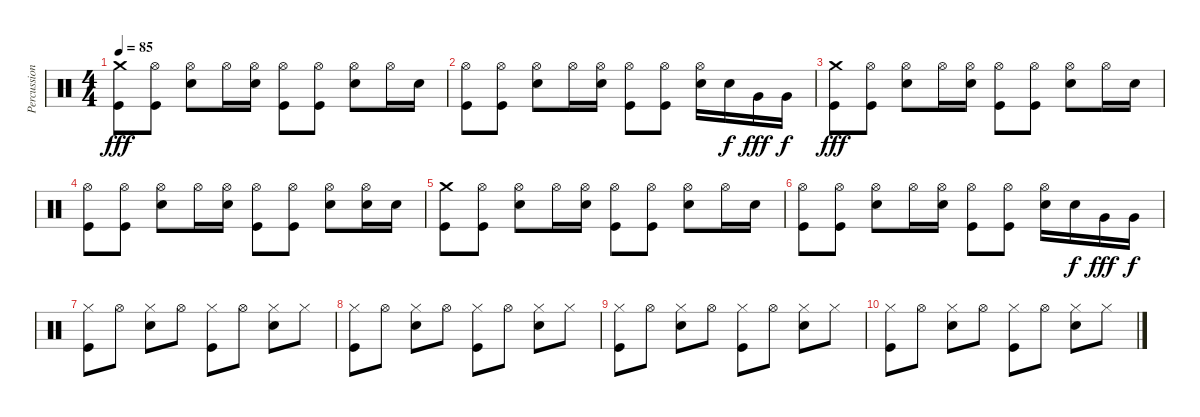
\track ("Percussion" "Percussion") {instrument percussion}
\staff {score}
\articulation defaults
\ts (4 4)
\tempo 85
\clef neutral
\ks c
("Crash medium (hit)" "Kick (hit)").8{dy fff} ("Hi-Hat (open)" "Kick (hit)").8 ("Hi-Hat (open)" "Electric Snare (hit)").8 "Hi-Hat (open)".16 ("Hi-Hat (open)" "Electric Snare (hit)").16 ("Hi-Hat (open)" "Kick (hit)").8 ("Hi-Hat (open)" "Kick (hit)").8 ("Hi-Hat (open)" "Electric Snare (hit)").8 "Hi-Hat (open)".16 "Electric Snare (hit)".16 |
("Hi-Hat (open)" "Kick (hit)").8 ("Hi-Hat (open)" "Kick (hit)").8 ("Hi-Hat (open)" "Electric Snare (hit)").8 "Hi-Hat (open)".16 ("Hi-Hat (open)" "Electric Snare (hit)").16 ("Hi-Hat (open)" "Kick (hit)").8 ("Hi-Hat (open)" "Kick (hit)").8 ("Hi-Hat (open)" "Electric Snare (hit)").16 "Electric Snare (hit)".16{dy f} "Very Low Tom (hit)".16{dy fff} "Very Low Tom (hit)".16{dy f} |
("Crash medium (hit)" "Kick (hit)").8{dy fff} ("Hi-Hat (open)" "Kick (hit)").8 ("Hi-Hat (open)" "Electric Snare (hit)").8 "Hi-Hat (open)".16 ("Hi-Hat (open)" "Electric Snare (hit)").16 ("Hi-Hat (open)" "Kick (hit)").8 ("Hi-Hat (open)" "Kick (hit)").8 ("Hi-Hat (open)" "Electric Snare (hit)").8 "Hi-Hat (open)".16 "Electric Snare (hit)".16 |
("Hi-Hat (open)" "Kick (hit)").8 ("Hi-Hat (open)" "Kick (hit)").8 ("Hi-Hat (open)" "Electric Snare (hit)").8 "Hi-Hat (open)".16 ("Hi-Hat (open)" "Electric Snare (hit)").16 ("Hi-Hat (open)" "Kick (hit)").8 ("Hi-Hat (open)" "Kick (hit)").8 ("Hi-Hat (open)" "Electric Snare (hit)").8 ("Hi-Hat (open)" "Electric Snare (hit)").16 "Electric Snare (hit)".16 |
("Crash medium (hit)" "Kick (hit)").8 ("Hi-Hat (open)" "Kick (hit)").8 ("Hi-Hat (open)" "Electric Snare (hit)").8 "Hi-Hat (open)".16 ("Hi-Hat (open)" "Electric Snare (hit)").16 ("Hi-Hat (open)" "Kick (hit)").8 ("Hi-Hat (open)" "Kick (hit)").8 ("Hi-Hat (open)" "Electric Snare (hit)").8 "Hi-Hat (open)".16 "Electric Snare (hit)".16 |
("Hi-Hat (open)" "Kick (hit)").8 ("Hi-Hat (open)" "Kick (hit)").8 ("Hi-Hat (open)" "Electric Snare (hit)").8 "Hi-Hat (open)".16 ("Hi-Hat (open)" "Electric Snare (hit)").16 ("Hi-Hat (open)" "Kick (hit)").8 ("Hi-Hat (open)" "Kick (hit)").8 ("Hi-Hat (open)" "Electric Snare (hit)").16 "Electric Snare (hit)".16{dy f} "Very Low Tom (hit)".16{dy fff} "Very Low Tom (hit)".16{dy f} |
("Hi-Hat (closed)" "Kick (hit)").8 "Hi-Hat (open)".8 ("Hi-Hat (closed)" "Snare (hit) 2").8 "Hi-Hat (open)".8 ("Hi-Hat (closed)" "Kick (hit)").8 "Hi-Hat (open)".8 ("Hi-Hat (closed)" "Snare (hit) 2").8 "Hi-Hat (closed)".8 |
("Hi-Hat (closed)" "Kick (hit)").8 "Hi-Hat (open)".8 ("Hi-Hat (closed)" "Snare (hit) 2").8 "Hi-Hat (open)".8 ("Hi-Hat (closed)" "Kick (hit)").8 "Hi-Hat (open)".8 ("Hi-Hat (closed)" "Snare (hit) 2").8 "Hi-Hat (closed)".8 |
("Hi-Hat (closed)" "Kick (hit)").8 "Hi-Hat (open)".8 ("Hi-Hat (closed)" "Snare (hit) 2").8 "Hi-Hat (open)".8 ("Hi-Hat (closed)" "Kick (hit)").8 "Hi-Hat (open)".8 ("Hi-Hat (closed)" "Snare (hit) 2").8 "Hi-Hat (closed)".8 |
("Hi-Hat (closed)" "Kick (hit)").8 "Hi-Hat (open)".8 ("Hi-Hat (closed)" "Snare (hit) 2").8 "Hi-Hat (open)".8 ("Hi-Hat (closed)" "Kick (hit)").8 "Hi-Hat (open)".8 ("Hi-Hat (closed)" "Snare (hit) 2").8 "Hi-Hat (closed)".8
